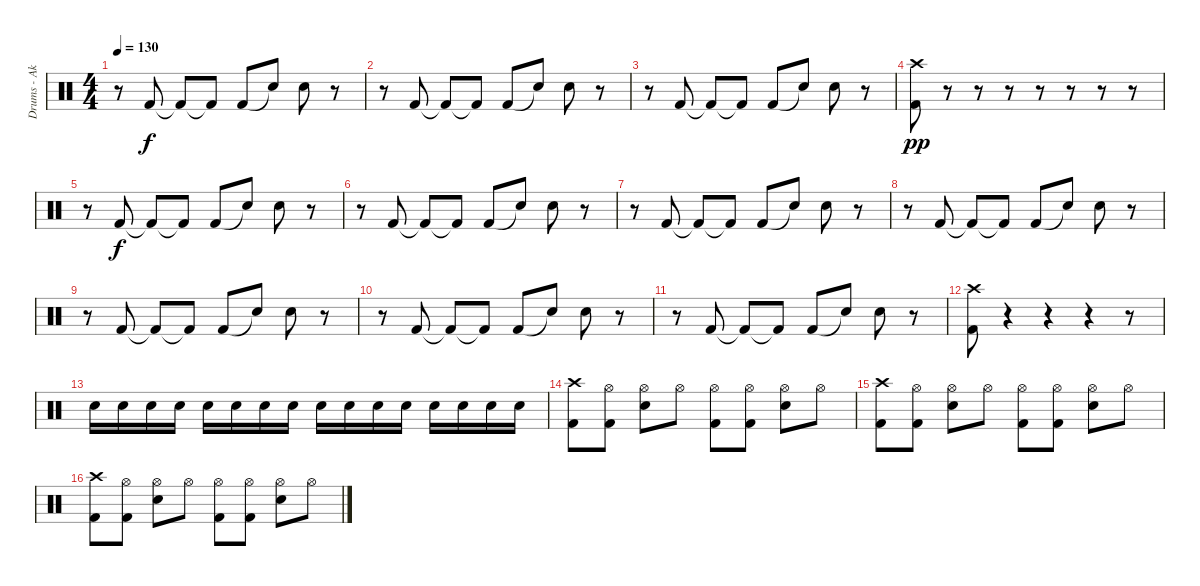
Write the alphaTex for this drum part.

\track ("Drums - Aki Hakala/Janne" "Drums - Ak") {instrument percussion}
\staff {score}
\articulation defaults
\ts (4 4)
\tempo 130
\clef neutral
\ks c
r.8{dy f} "Kick (hit) 2".8 "Kick (hit) 2"{t}.8 "Kick (hit) 2"{t}.8 "Kick (hit) 2".8 "Snare (hit)"{t}.8 "Electric Snare (hit)".8 r.8 |
r.8 "Kick (hit) 2".8 "Kick (hit) 2"{t}.8 "Kick (hit) 2"{t}.8 "Kick (hit) 2".8 "Snare (hit)"{t}.8 "Electric Snare (hit)".8 r.8 |
r.8 "Kick (hit) 2".8 "Kick (hit) 2"{t}.8 "Kick (hit) 2"{t}.8 "Kick (hit) 2".8 "Snare (hit)"{t}.8 "Electric Snare (hit)".8 r.8 |
("Crash high (hit)" "Kick (hit) 2").8{dy pp} r.8 r.8 r.8 r.8 r.8 r.8 r.8 |
r.8 "Kick (hit) 2".8{dy f} "Kick (hit) 2"{t}.8 "Kick (hit) 2"{t}.8 "Kick (hit) 2".8 "Snare (hit)"{t}.8 "Electric Snare (hit)".8 r.8 |
r.8 "Kick (hit) 2".8 "Kick (hit) 2"{t}.8 "Kick (hit) 2"{t}.8 "Kick (hit) 2".8 "Snare (hit)"{t}.8 "Electric Snare (hit)".8 r.8 |
r.8 "Kick (hit) 2".8 "Kick (hit) 2"{t}.8 "Kick (hit) 2"{t}.8 "Kick (hit) 2".8 "Snare (hit)"{t}.8 "Electric Snare (hit)".8 r.8 |
r.8 "Kick (hit) 2".8 "Kick (hit) 2"{t}.8 "Kick (hit) 2"{t}.8 "Kick (hit) 2".8 "Snare (hit)"{t}.8 "Electric Snare (hit)".8 r.8 |
r.8 "Kick (hit) 2".8 "Kick (hit) 2"{t}.8 "Kick (hit) 2"{t}.8 "Kick (hit) 2".8 "Snare (hit)"{t}.8 "Electric Snare (hit)".8 r.8 |
r.8 "Kick (hit) 2".8 "Kick (hit) 2"{t}.8 "Kick (hit) 2"{t}.8 "Kick (hit) 2".8 "Snare (hit)"{t}.8 "Electric Snare (hit)".8 r.8 |
r.8 "Kick (hit) 2".8 "Kick (hit) 2"{t}.8 "Kick (hit) 2"{t}.8 "Kick (hit) 2".8 "Snare (hit)"{t}.8 "Electric Snare (hit)".8 r.8 |
("Crash high (hit)" "Kick (hit) 2").8 r.4 r.4 r.4 r.8 |
"Electric Snare (hit)".16 "Electric Snare (hit)".16 "Electric Snare (hit)".16 "Electric Snare (hit)".16 "Electric Snare (hit)".16 "Electric Snare (hit)".16 "Electric Snare (hit)".16 "Electric Snare (hit)".16 "Electric Snare (hit)".16 "Electric Snare (hit)".16 "Electric Snare (hit)".16 "Electric Snare (hit)".16 "Electric Snare (hit)".16 "Electric Snare (hit)".16 "Electric Snare (hit)".16 "Electric Snare (hit)".16 |
("Crash high (hit)" "Kick (hit) 2").8 ("Hi-Hat (open)" "Kick (hit) 2").8 ("Hi-Hat (open)" "Electric Snare (hit)").8 "Hi-Hat (open)".8 ("Hi-Hat (open)" "Kick (hit) 2").8 ("Hi-Hat (open)" "Kick (hit) 2").8 ("Hi-Hat (open)" "Electric Snare (hit)").8 "Hi-Hat (open)".8 |
("Crash high (hit)" "Kick (hit) 2").8 ("Hi-Hat (open)" "Kick (hit) 2").8 ("Hi-Hat (open)" "Electric Snare (hit)").8 "Hi-Hat (open)".8 ("Hi-Hat (open)" "Kick (hit) 2").8 ("Hi-Hat (open)" "Kick (hit) 2").8 ("Hi-Hat (open)" "Electric Snare (hit)").8 "Hi-Hat (open)".8 |
("Crash high (hit)" "Kick (hit) 2").8 ("Hi-Hat (open)" "Kick (hit) 2").8 ("Hi-Hat (open)" "Electric Snare (hit)").8 "Hi-Hat (open)".8 ("Hi-Hat (open)" "Kick (hit) 2").8 ("Hi-Hat (open)" "Kick (hit) 2").8 ("Hi-Hat (open)" "Electric Snare (hit)").8 "Hi-Hat (open)".8
